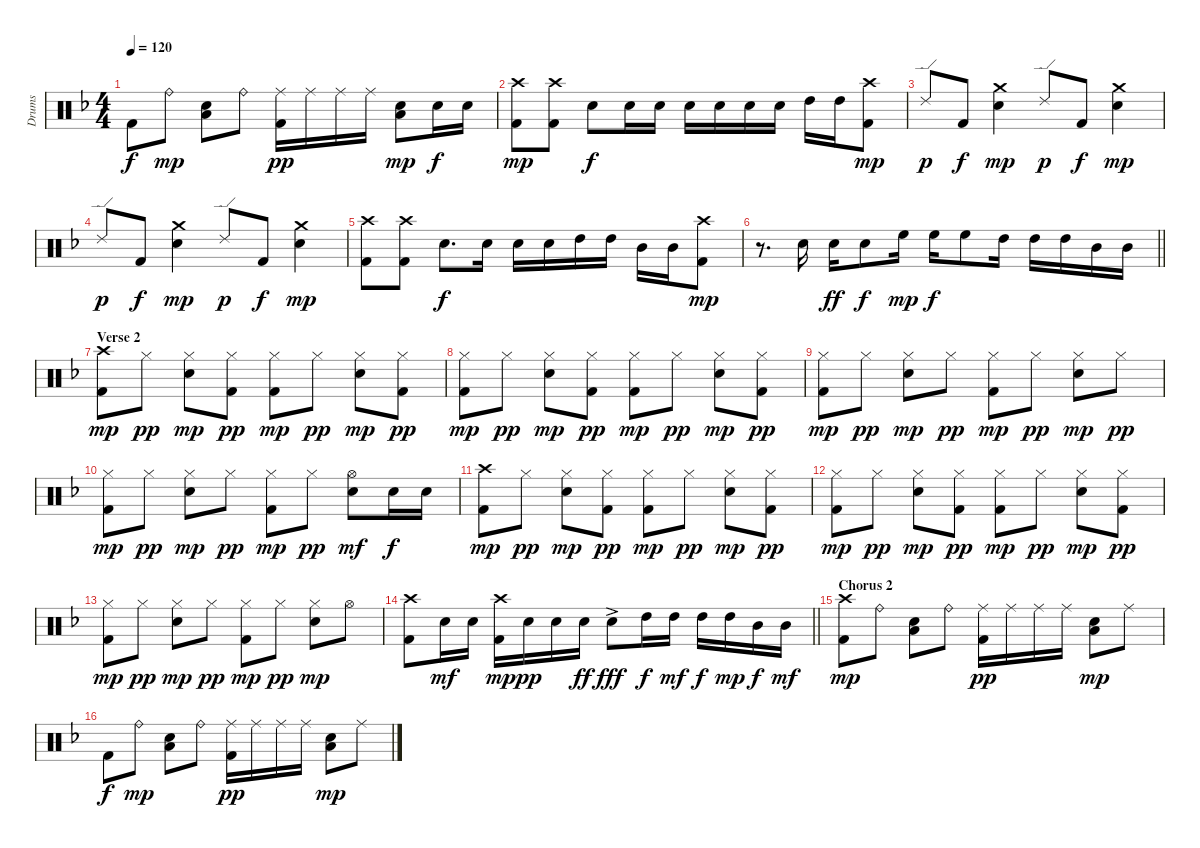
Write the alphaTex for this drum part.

\track ("Drums" "Drums") {instrument percussion}
\staff {score}
\articulation defaults
\ts (4 4)
\tempo 120
\clef neutral
\ks dminor "Kick (hit) 2".8{dy f} "Ride (bell)".8{dy mp}
("Electric Snare (hit)" "Low Tom (hit)").8 "Ride (bell)".8 ("Kick (hit) 2" "Ride (middle)").16{dy pp} "Ride (middle)".16 "Ride (middle)".16 "Ride (middle)".16 ("Electric Snare (hit)" "Low Tom (hit)").8{dy mp} "Electric Snare (hit)".16{dy f} "Electric Snare (hit)".16 |
("Kick (hit) 2" "Crash high (hit)").8{dy mp} ("Kick (hit) 2" "Crash high (hit)").8 "Electric Snare (hit)".8{dy f} "Electric Snare (hit)".16 "Electric Snare (hit)".16 "Electric Snare (hit)".16 "Electric Snare (hit)".16 "Electric Snare (hit)".16 "Electric Snare (hit)".16 "High Tom (hit)".16 "High Tom (hit)".16 ("Kick (hit) 2" "Crash high (hit)").8{dy mp} |
"Ride (edge) 2".8{dy p} "Kick (hit) 2".8{dy f} ("Electric Snare (hit)" "Crash medium (hit)").4{dy mp} "Ride (edge) 2".8{dy p} "Kick (hit) 2".8{dy f} ("Electric Snare (hit)" "Crash medium (hit)").4{dy mp} |
"Ride (edge) 2".8{dy p} "Kick (hit) 2".8{dy f} ("Electric Snare (hit)" "Crash medium (hit)").4{dy mp} "Ride (edge) 2".8{dy p} "Kick (hit) 2".8{dy f} ("Electric Snare (hit)" "Crash medium (hit)").4{dy mp} |
("Kick (hit) 2" "Crash high (hit)").8 ("Kick (hit) 2" "Crash high (hit)").8 "Electric Snare (hit)".8{d dy f} "Electric Snare (hit)".16 "Electric Snare (hit)".16 "Electric Snare (hit)".16 "High Tom (hit)".16 "High Tom (hit)".16 "Mid Tom (hit)".16 "Mid Tom (hit)".16 ("Kick (hit) 2" "Crash high (hit)").8{dy mp} |
\barLineRight lightlight
r.8{d} "Electric Snare (hit)".16 "Electric Snare (hit)".16{dy ff} "Electric Snare (hit)".8{dy f} "High Floor Tom (hit)".16{dy mp} "High Floor Tom (hit)".16{dy f} "High Floor Tom (hit)".8 "High Tom (hit)".16 "High Tom (hit)".16 "High Tom (hit)".16 "Mid Tom (hit)".16 "Mid Tom (hit)".16 |
\section ("" "Verse 2")
("Crash high (hit)" "Kick (hit) 2").8{dy mp} "Hi-Hat (closed)".8{dy pp} ("Hi-Hat (closed)" "Electric Snare (hit)").8{dy mp} ("Hi-Hat (closed)" "Kick (hit) 2").8{dy pp} ("Hi-Hat (closed)" "Kick (hit) 2").8{dy mp} "Hi-Hat (closed)".8{dy pp} ("Hi-Hat (closed)" "Electric Snare (hit)").8{dy mp} ("Hi-Hat (closed)" "Kick (hit) 2").8{dy pp} |
("Hi-Hat (closed)" "Kick (hit) 2").8{dy mp} "Hi-Hat (closed)".8{dy pp} ("Hi-Hat (closed)" "Electric Snare (hit)").8{dy mp} ("Hi-Hat (closed)" "Kick (hit) 2").8{dy pp} ("Hi-Hat (closed)" "Kick (hit) 2").8{dy mp} "Hi-Hat (closed)".8{dy pp} ("Hi-Hat (closed)" "Electric Snare (hit)").8{dy mp} ("Hi-Hat (closed)" "Kick (hit) 2").8{dy pp} |
("Hi-Hat (closed)" "Kick (hit) 2").8{dy mp} "Hi-Hat (closed)".8{dy pp} ("Hi-Hat (closed)" "Electric Snare (hit)").8{dy mp} "Hi-Hat (closed)".8{dy pp} ("Hi-Hat (closed)" "Kick (hit) 2").8{dy mp} "Hi-Hat (closed)".8{dy pp} ("Hi-Hat (closed)" "Electric Snare (hit)").8{dy mp} "Hi-Hat (closed)".8{dy pp} |
("Hi-Hat (closed)" "Kick (hit) 2").8{dy mp} "Hi-Hat (closed)".8{dy pp} ("Hi-Hat (closed)" "Electric Snare (hit)").8{dy mp} "Hi-Hat (closed)".8{dy pp} ("Hi-Hat (closed)" "Kick (hit) 2").8{dy mp} "Hi-Hat (closed)".8{dy pp} ("Hi-Hat (open)" "Electric Snare (hit)").8{dy mf} "Electric Snare (hit)".16{dy f} "Electric Snare (hit)".16 |
("Crash high (hit)" "Kick (hit) 2").8{dy mp} "Hi-Hat (closed)".8{dy pp} ("Hi-Hat (closed)" "Electric Snare (hit)").8{dy mp} ("Hi-Hat (closed)" "Kick (hit) 2").8{dy pp} ("Hi-Hat (closed)" "Kick (hit) 2").8{dy mp} "Hi-Hat (closed)".8{dy pp} ("Hi-Hat (closed)" "Electric Snare (hit)").8{dy mp} ("Hi-Hat (closed)" "Kick (hit) 2").8{dy pp} |
("Hi-Hat (closed)" "Kick (hit) 2").8{dy mp} "Hi-Hat (closed)".8{dy pp} ("Hi-Hat (closed)" "Electric Snare (hit)").8{dy mp} ("Hi-Hat (closed)" "Kick (hit) 2").8{dy pp} ("Hi-Hat (closed)" "Kick (hit) 2").8{dy mp} "Hi-Hat (closed)".8{dy pp} ("Hi-Hat (closed)" "Electric Snare (hit)").8{dy mp} ("Hi-Hat (closed)" "Kick (hit) 2").8{dy pp} |
("Hi-Hat (closed)" "Kick (hit) 2").8{dy mp} "Hi-Hat (closed)".8{dy pp} ("Hi-Hat (closed)" "Electric Snare (hit)").8{dy mp} "Hi-Hat (closed)".8{dy pp} ("Hi-Hat (closed)" "Kick (hit) 2").8{dy mp} "Hi-Hat (closed)".8{dy pp} ("Hi-Hat (closed)" "Electric Snare (hit)").8{dy mp} "Hi-Hat (open)".8 |
\barLineRight lightlight
("Kick (hit) 2" "Crash high (hit)").8 "Electric Snare (hit)".16{dy mf} "Electric Snare (hit)".16 ("Kick (hit) 2" "Crash high (hit)").16{dy mp} "Electric Snare (hit)".16{dy pp} "Electric Snare (hit)".16 "Electric Snare (hit)".16{dy ff} "Electric Snare (hit)"{ac}.8{dy fff} "High Tom (hit)".16{dy f} "High Tom (hit)".16{dy mf} "High Tom (hit)".16{dy f} "High Tom (hit)".16{dy mp} "Mid Tom (hit)".16{dy f} "Mid Tom (hit)".16{dy mf} |
\section ("" "Chorus 2")
("Kick (hit) 2" "Crash high (hit)").8{dy mp} "Ride (bell)".8 ("Electric Snare (hit)" "Low Tom (hit)").8 "Ride (bell)".8 ("Kick (hit) 2" "Ride (middle)").16{dy pp} "Ride (middle)".16 "Ride (middle)".16 "Ride (middle)".16 ("Electric Snare (hit)" "Low Tom (hit)").8{dy mp} "Ride (middle)".8 |
"Kick (hit) 2".8{dy f} "Ride (bell)".8{dy mp} ("Electric Snare (hit)" "Low Tom (hit)").8 "Ride (bell)".8 ("Kick (hit) 2" "Ride (middle)").16{dy pp} "Ride (middle)".16 "Ride (middle)".16 "Ride (middle)".16 ("Electric Snare (hit)" "Low Tom (hit)").8{dy mp} "Ride (middle)".8
